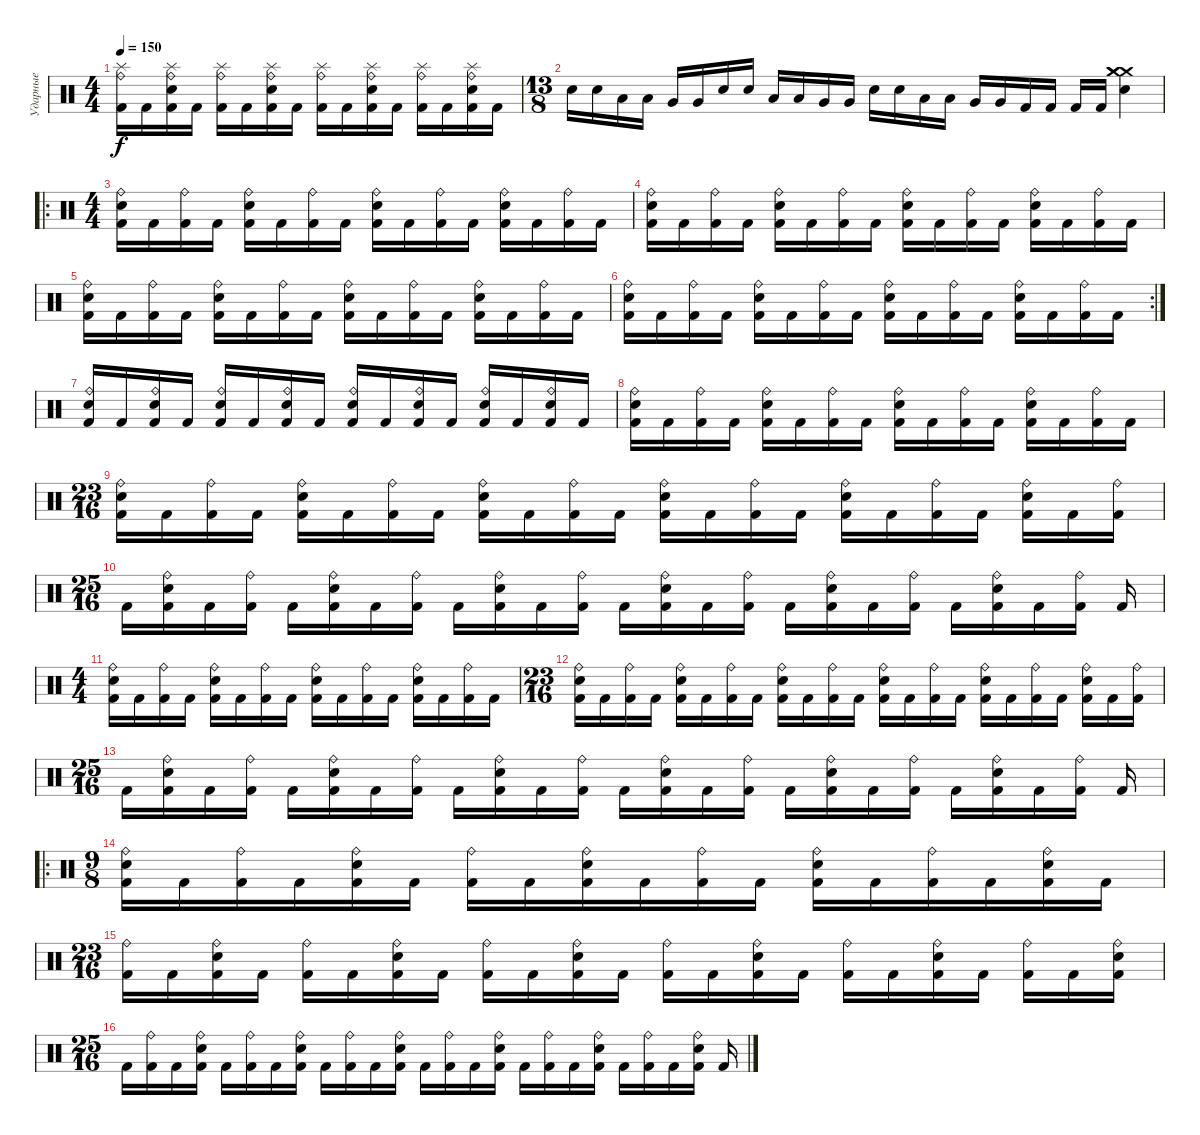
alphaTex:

\track ("Ударные" "Ударные") {instrument percussion}
\staff {score}
\articulation defaults
\ts (4 4)
\tempo 150
\clef neutral
\ks c
("Kick (hit) 2" "Ride (bell)" "Splash (hit)").16{dy f} "Kick (hit) 2".16 ("Kick (hit) 2" "Snare (hit) 2" "Ride (bell)" "Splash (hit)").16 "Kick (hit) 2".16 ("Kick (hit) 2" "Ride (bell)" "Splash (hit)").16 "Kick (hit) 2".16 ("Kick (hit) 2" "Snare (hit) 2" "Ride (bell)" "Splash (hit)").16 "Kick (hit) 2".16 ("Kick (hit) 2" "Ride (bell)" "Splash (hit)").16 "Kick (hit) 2".16 ("Kick (hit) 2" "Snare (hit) 2" "Ride (bell)" "Splash (hit)").16 "Kick (hit) 2".16 ("Kick (hit) 2" "Ride (bell)" "Splash (hit)").16 "Kick (hit) 2".16 ("Kick (hit) 2" "Snare (hit) 2" "Ride (bell)" "Splash (hit)").16 "Kick (hit) 2".16 |
\ts (13 8)
"Electric Snare (hit)".16 "Electric Snare (hit)".16 "Low Floor Tom (hit)".16 "Low Floor Tom (hit)".16 "Very Low Tom (hit)".16 "Very Low Tom (hit)".16 "Electric Snare (hit)".16 "Electric Snare (hit)".16 "Low Floor Tom (hit)".16 "Low Floor Tom (hit)".16 "Very Low Tom (hit)".16 "Very Low Tom (hit)".16 "Electric Snare (hit)".16 "Electric Snare (hit)".16 "Low Floor Tom (hit)".16 "Low Floor Tom (hit)".16 "Very Low Tom (hit)".16 "Very Low Tom (hit)".16 "Kick (hit) 2".16 "Kick (hit) 2".16 "Kick (hit) 2".16 "Kick (hit) 2".16 ("Crash medium (hit)" "Crash medium (hit)" "Crash medium (hit)" "Snare (hit) 2").4 |
\ro
\ts (4 4)
("Kick (hit) 2" "Snare (hit) 2" "Ride (bell)").16 "Kick (hit) 2".16 ("Kick (hit) 2" "Ride (bell)").16 "Kick (hit) 2".16 ("Kick (hit) 2" "Snare (hit) 2" "Ride (bell)").16 "Kick (hit) 2".16 ("Kick (hit) 2" "Ride (bell)").16 "Kick (hit) 2".16 ("Kick (hit) 2" "Snare (hit) 2" "Ride (bell)").16 "Kick (hit) 2".16 ("Kick (hit) 2" "Ride (bell)").16 "Kick (hit) 2".16 ("Kick (hit) 2" "Snare (hit) 2" "Ride (bell)").16 "Kick (hit) 2".16 ("Kick (hit) 2" "Ride (bell)").16 "Kick (hit) 2".16 |
("Kick (hit) 2" "Snare (hit) 2" "Ride (bell)").16 "Kick (hit) 2".16 ("Kick (hit) 2" "Ride (bell)").16 "Kick (hit) 2".16 ("Kick (hit) 2" "Snare (hit) 2" "Ride (bell)").16 "Kick (hit) 2".16 ("Kick (hit) 2" "Ride (bell)").16 "Kick (hit) 2".16 ("Kick (hit) 2" "Snare (hit) 2" "Ride (bell)").16 "Kick (hit) 2".16 ("Kick (hit) 2" "Ride (bell)").16 "Kick (hit) 2".16 ("Kick (hit) 2" "Snare (hit) 2" "Ride (bell)").16 "Kick (hit) 2".16 ("Kick (hit) 2" "Ride (bell)").16 "Kick (hit) 2".16 |
("Kick (hit) 2" "Snare (hit) 2" "Ride (bell)").16 "Kick (hit) 2".16 ("Kick (hit) 2" "Ride (bell)").16 "Kick (hit) 2".16 ("Kick (hit) 2" "Snare (hit) 2" "Ride (bell)").16 "Kick (hit) 2".16 ("Kick (hit) 2" "Ride (bell)").16 "Kick (hit) 2".16 ("Kick (hit) 2" "Snare (hit) 2" "Ride (bell)").16 "Kick (hit) 2".16 ("Kick (hit) 2" "Ride (bell)").16 "Kick (hit) 2".16 ("Kick (hit) 2" "Snare (hit) 2" "Ride (bell)").16 "Kick (hit) 2".16 ("Kick (hit) 2" "Ride (bell)").16 "Kick (hit) 2".16 |
\rc 2
("Kick (hit) 2" "Snare (hit) 2" "Ride (bell)").16 "Kick (hit) 2".16 ("Kick (hit) 2" "Ride (bell)").16 "Kick (hit) 2".16 ("Kick (hit) 2" "Snare (hit) 2" "Ride (bell)").16 "Kick (hit) 2".16 ("Kick (hit) 2" "Ride (bell)").16 "Kick (hit) 2".16 ("Kick (hit) 2" "Snare (hit) 2" "Ride (bell)").16 "Kick (hit) 2".16 ("Kick (hit) 2" "Ride (bell)").16 "Kick (hit) 2".16 ("Kick (hit) 2" "Snare (hit) 2" "Ride (bell)").16 "Kick (hit) 2".16 ("Kick (hit) 2" "Ride (bell)").16 "Kick (hit) 2".16 |
("Kick (hit) 2" "Snare (hit) 2" "Ride (bell)").16 "Kick (hit) 2".16 ("Kick (hit) 2" "Snare (hit) 2" "Ride (bell)").16 "Kick (hit) 2".16 ("Kick (hit) 2" "Snare (hit) 2" "Ride (bell)").16 "Kick (hit) 2".16 ("Kick (hit) 2" "Snare (hit) 2" "Ride (bell)").16 "Kick (hit) 2".16 ("Kick (hit) 2" "Snare (hit) 2" "Ride (bell)").16 "Kick (hit) 2".16 ("Kick (hit) 2" "Snare (hit) 2" "Ride (bell)").16 "Kick (hit) 2".16 ("Kick (hit) 2" "Snare (hit) 2" "Ride (bell)").16 "Kick (hit) 2".16 ("Kick (hit) 2" "Snare (hit) 2" "Ride (bell)").16 "Kick (hit) 2".16 |
("Kick (hit) 2" "Snare (hit) 2" "Ride (bell)").16 "Kick (hit) 2".16 ("Kick (hit) 2" "Ride (bell)").16 "Kick (hit) 2".16 ("Kick (hit) 2" "Snare (hit) 2" "Ride (bell)").16 "Kick (hit) 2".16 ("Kick (hit) 2" "Ride (bell)").16 "Kick (hit) 2".16 ("Kick (hit) 2" "Snare (hit) 2" "Ride (bell)").16 "Kick (hit) 2".16 ("Kick (hit) 2" "Ride (bell)").16 "Kick (hit) 2".16 ("Kick (hit) 2" "Snare (hit) 2" "Ride (bell)").16 "Kick (hit) 2".16 ("Kick (hit) 2" "Ride (bell)").16 "Kick (hit) 2".16 |
\ts (23 16)
("Kick (hit) 2" "Snare (hit) 2" "Ride (bell)").16 "Kick (hit) 2".16 ("Kick (hit) 2" "Ride (bell)").16 "Kick (hit) 2".16 ("Kick (hit) 2" "Snare (hit) 2" "Ride (bell)").16 "Kick (hit) 2".16 ("Kick (hit) 2" "Ride (bell)").16 "Kick (hit) 2".16 ("Kick (hit) 2" "Snare (hit) 2" "Ride (bell)").16 "Kick (hit) 2".16 ("Kick (hit) 2" "Ride (bell)").16 "Kick (hit) 2".16 ("Kick (hit) 2" "Snare (hit) 2" "Ride (bell)").16 "Kick (hit) 2".16 ("Kick (hit) 2" "Ride (bell)").16 "Kick (hit) 2".16 ("Kick (hit) 2" "Snare (hit) 2" "Ride (bell)").16 "Kick (hit) 2".16 ("Kick (hit) 2" "Ride (bell)").16 "Kick (hit) 2".16 ("Kick (hit) 2" "Snare (hit) 2" "Ride (bell)").16 "Kick (hit) 2".16 ("Kick (hit) 2" "Ride (bell)").16 |
\ts (25 16)
"Kick (hit) 2".16 ("Kick (hit) 2" "Snare (hit) 2" "Ride (bell)").16 "Kick (hit) 2".16 ("Kick (hit) 2" "Ride (bell)").16 "Kick (hit) 2".16 ("Kick (hit) 2" "Snare (hit) 2" "Ride (bell)").16 "Kick (hit) 2".16 ("Kick (hit) 2" "Ride (bell)").16 "Kick (hit) 2".16 ("Kick (hit) 2" "Snare (hit) 2" "Ride (bell)").16 "Kick (hit) 2".16 ("Kick (hit) 2" "Ride (bell)").16 "Kick (hit) 2".16 ("Kick (hit) 2" "Snare (hit) 2" "Ride (bell)").16 "Kick (hit) 2".16 ("Kick (hit) 2" "Ride (bell)").16 "Kick (hit) 2".16 ("Kick (hit) 2" "Snare (hit) 2" "Ride (bell)").16 "Kick (hit) 2".16 ("Kick (hit) 2" "Ride (bell)").16 "Kick (hit) 2".16 ("Kick (hit) 2" "Snare (hit) 2" "Ride (bell)").16 "Kick (hit) 2".16 ("Kick (hit) 2" "Ride (bell)").16 "Kick (hit) 2".16 |
\ts (4 4)
("Kick (hit) 2" "Snare (hit) 2" "Ride (bell)").16 "Kick (hit) 2".16 ("Kick (hit) 2" "Ride (bell)").16 "Kick (hit) 2".16 ("Kick (hit) 2" "Snare (hit) 2" "Ride (bell)").16 "Kick (hit) 2".16 ("Kick (hit) 2" "Ride (bell)").16 "Kick (hit) 2".16 ("Kick (hit) 2" "Snare (hit) 2" "Ride (bell)").16 "Kick (hit) 2".16 ("Kick (hit) 2" "Ride (bell)").16 "Kick (hit) 2".16 ("Kick (hit) 2" "Snare (hit) 2" "Ride (bell)").16 "Kick (hit) 2".16 ("Kick (hit) 2" "Ride (bell)").16 "Kick (hit) 2".16 |
\ts (23 16)
("Kick (hit) 2" "Snare (hit) 2" "Ride (bell)").16 "Kick (hit) 2".16 ("Kick (hit) 2" "Ride (bell)").16 "Kick (hit) 2".16 ("Kick (hit) 2" "Snare (hit) 2" "Ride (bell)").16 "Kick (hit) 2".16 ("Kick (hit) 2" "Ride (bell)").16 "Kick (hit) 2".16 ("Kick (hit) 2" "Snare (hit) 2" "Ride (bell)").16 "Kick (hit) 2".16 ("Kick (hit) 2" "Ride (bell)").16 "Kick (hit) 2".16 ("Kick (hit) 2" "Snare (hit) 2" "Ride (bell)").16 "Kick (hit) 2".16 ("Kick (hit) 2" "Ride (bell)").16 "Kick (hit) 2".16 ("Kick (hit) 2" "Snare (hit) 2" "Ride (bell)").16 "Kick (hit) 2".16 ("Kick (hit) 2" "Ride (bell)").16 "Kick (hit) 2".16 ("Kick (hit) 2" "Snare (hit) 2" "Ride (bell)").16 "Kick (hit) 2".16 ("Kick (hit) 2" "Ride (bell)").16 |
\ts (25 16)
"Kick (hit) 2".16 ("Kick (hit) 2" "Snare (hit) 2" "Ride (bell)").16 "Kick (hit) 2".16 ("Kick (hit) 2" "Ride (bell)").16 "Kick (hit) 2".16 ("Kick (hit) 2" "Snare (hit) 2" "Ride (bell)").16 "Kick (hit) 2".16 ("Kick (hit) 2" "Ride (bell)").16 "Kick (hit) 2".16 ("Kick (hit) 2" "Snare (hit) 2" "Ride (bell)").16 "Kick (hit) 2".16 ("Kick (hit) 2" "Ride (bell)").16 "Kick (hit) 2".16 ("Kick (hit) 2" "Snare (hit) 2" "Ride (bell)").16 "Kick (hit) 2".16 ("Kick (hit) 2" "Ride (bell)").16 "Kick (hit) 2".16 ("Kick (hit) 2" "Snare (hit) 2" "Ride (bell)").16 "Kick (hit) 2".16 ("Kick (hit) 2" "Ride (bell)").16 "Kick (hit) 2".16 ("Kick (hit) 2" "Snare (hit) 2" "Ride (bell)").16 "Kick (hit) 2".16 ("Kick (hit) 2" "Ride (bell)").16 "Kick (hit) 2".16 |
\ro
\ts (9 8)
("Kick (hit) 2" "Snare (hit) 2" "Ride (bell)").16 "Kick (hit) 2".16 ("Kick (hit) 2" "Ride (bell)").16 "Kick (hit) 2".16 ("Kick (hit) 2" "Snare (hit) 2" "Ride (bell)").16 "Kick (hit) 2".16 ("Kick (hit) 2" "Ride (bell)").16 "Kick (hit) 2".16 ("Kick (hit) 2" "Snare (hit) 2" "Ride (bell)").16 "Kick (hit) 2".16 ("Kick (hit) 2" "Ride (bell)").16 "Kick (hit) 2".16 ("Kick (hit) 2" "Snare (hit) 2" "Ride (bell)").16 "Kick (hit) 2".16 ("Kick (hit) 2" "Ride (bell)").16 "Kick (hit) 2".16 ("Kick (hit) 2" "Snare (hit) 2" "Ride (bell)").16 "Kick (hit) 2".16 |
\ts (23 16)
("Kick (hit) 2" "Ride (bell)").16 "Kick (hit) 2".16 ("Kick (hit) 2" "Snare (hit) 2" "Ride (bell)").16 "Kick (hit) 2".16 ("Kick (hit) 2" "Ride (bell)").16 "Kick (hit) 2".16 ("Kick (hit) 2" "Snare (hit) 2" "Ride (bell)").16 "Kick (hit) 2".16 ("Kick (hit) 2" "Ride (bell)").16 "Kick (hit) 2".16 ("Kick (hit) 2" "Snare (hit) 2" "Ride (bell)").16 "Kick (hit) 2".16 ("Kick (hit) 2" "Ride (bell)").16 "Kick (hit) 2".16 ("Kick (hit) 2" "Snare (hit) 2" "Ride (bell)").16 "Kick (hit) 2".16 ("Kick (hit) 2" "Ride (bell)").16 "Kick (hit) 2".16 ("Kick (hit) 2" "Snare (hit) 2" "Ride (bell)").16 "Kick (hit) 2".16 ("Kick (hit) 2" "Ride (bell)").16 "Kick (hit) 2".16 ("Kick (hit) 2" "Snare (hit) 2" "Ride (bell)").16 |
\ts (25 16)
"Kick (hit) 2".16 ("Kick (hit) 2" "Ride (bell)").16 "Kick (hit) 2".16 ("Kick (hit) 2" "Snare (hit) 2" "Ride (bell)").16 "Kick (hit) 2".16 ("Kick (hit) 2" "Ride (bell)").16 "Kick (hit) 2".16 ("Kick (hit) 2" "Snare (hit) 2" "Ride (bell)").16 "Kick (hit) 2".16 ("Kick (hit) 2" "Ride (bell)").16 "Kick (hit) 2".16 ("Kick (hit) 2" "Snare (hit) 2" "Ride (bell)").16 "Kick (hit) 2".16 ("Kick (hit) 2" "Ride (bell)").16 "Kick (hit) 2".16 ("Kick (hit) 2" "Snare (hit) 2" "Ride (bell)").16 "Kick (hit) 2".16 ("Kick (hit) 2" "Ride (bell)").16 "Kick (hit) 2".16 ("Kick (hit) 2" "Snare (hit) 2" "Ride (bell)").16 "Kick (hit) 2".16 ("Kick (hit) 2" "Ride (bell)").16 "Kick (hit) 2".16 ("Kick (hit) 2" "Snare (hit) 2" "Ride (bell)").16 "Kick (hit) 2".16
